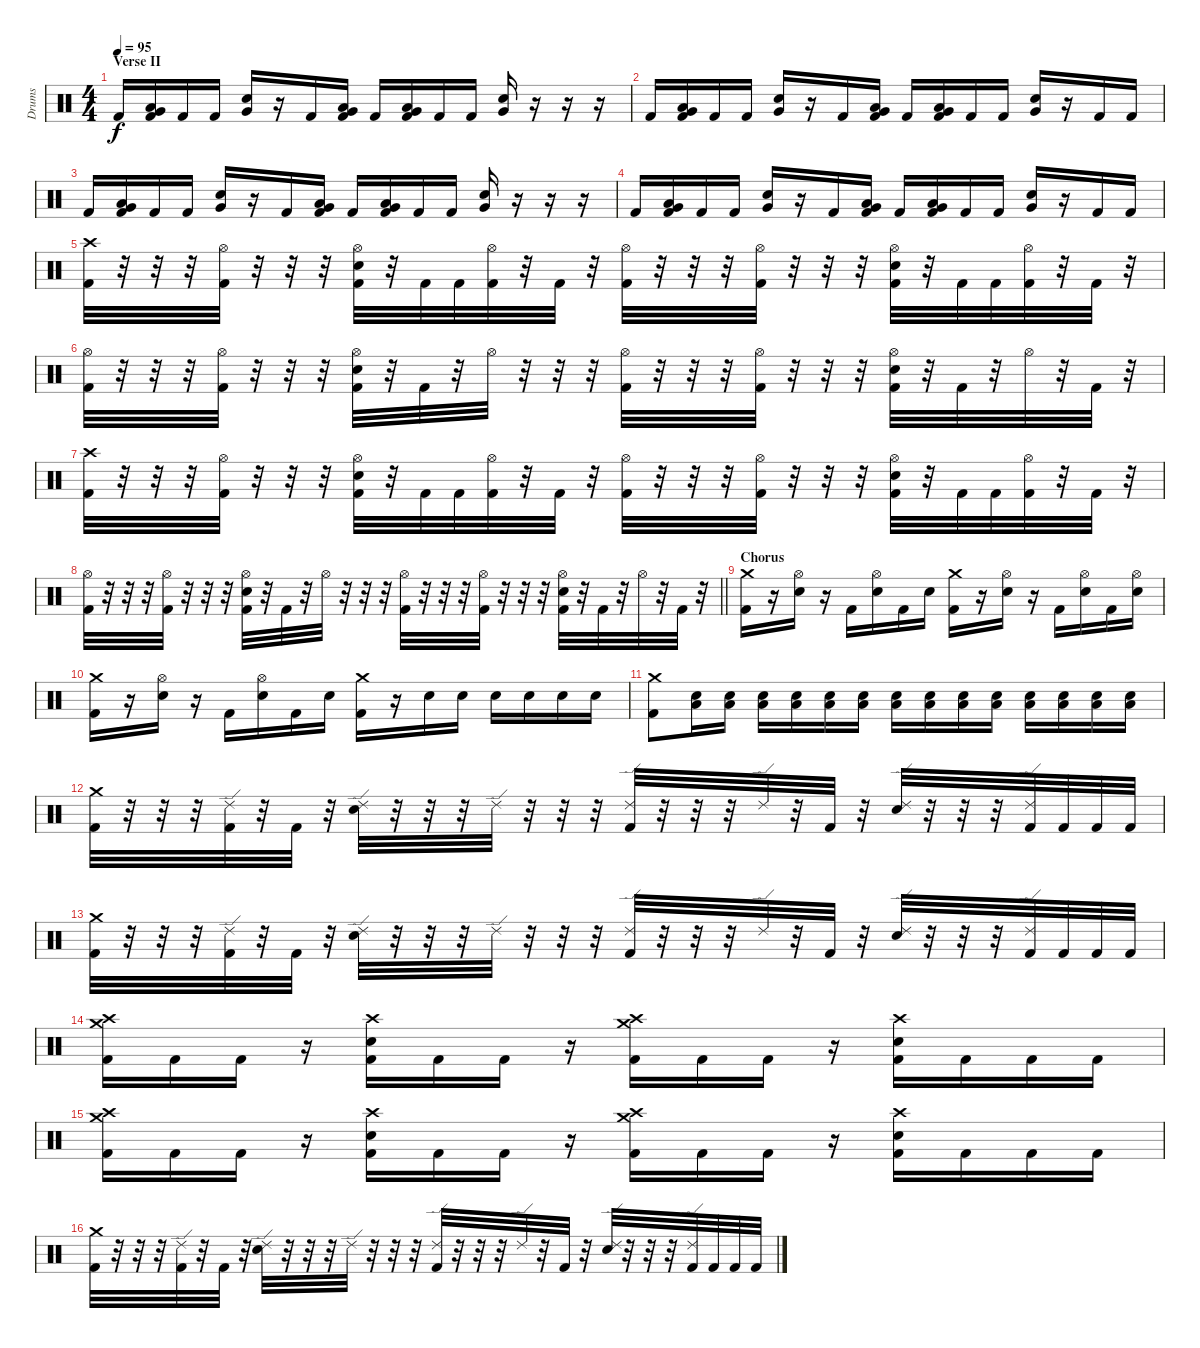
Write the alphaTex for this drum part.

\track ("Drums" "Drums") {instrument percussion}
\staff {score}
\articulation defaults
\ts (4 4)
\section ("" "Verse II")
\tempo 95
\clef neutral
\ks c "Kick (hit) 2".16{dy f}
("Low Tom (hit)" "Very Low Tom (hit)" "Kick (hit) 2").16 "Kick (hit) 2".16 "Kick (hit) 2".16 ("Electric Snare (hit)" "Very Low Tom (hit)").16 r.16 "Kick (hit) 2".16 ("Low Tom (hit)" "Very Low Tom (hit)" "Kick (hit) 2").16 "Kick (hit) 2".16 ("Very Low Tom (hit)" "Low Floor Tom (hit)" "Kick (hit) 2").16 "Kick (hit) 2".16 "Kick (hit) 2".16 ("Electric Snare (hit)" "Very Low Tom (hit)").16 r.16 r.16 r.16 |
"Kick (hit) 2".16 ("Low Tom (hit)" "Very Low Tom (hit)" "Kick (hit) 2").16 "Kick (hit) 2".16 "Kick (hit) 2".16 ("Electric Snare (hit)" "Very Low Tom (hit)").16 r.16 "Kick (hit) 2".16 ("Low Tom (hit)" "Very Low Tom (hit)" "Kick (hit) 2").16 "Kick (hit) 2".16 ("Very Low Tom (hit)" "Low Floor Tom (hit)" "Kick (hit) 2").16 "Kick (hit) 2".16 "Kick (hit) 2".16 ("Electric Snare (hit)" "Very Low Tom (hit)").16 r.16 "Kick (hit) 2".16 "Kick (hit) 2".16 |
"Kick (hit) 2".16 ("Low Tom (hit)" "Very Low Tom (hit)" "Kick (hit) 2").16 "Kick (hit) 2".16 "Kick (hit) 2".16 ("Electric Snare (hit)" "Very Low Tom (hit)").16 r.16 "Kick (hit) 2".16 ("Low Tom (hit)" "Very Low Tom (hit)" "Kick (hit) 2").16 "Kick (hit) 2".16 ("Very Low Tom (hit)" "Low Floor Tom (hit)" "Kick (hit) 2").16 "Kick (hit) 2".16 "Kick (hit) 2".16 ("Electric Snare (hit)" "Very Low Tom (hit)").16 r.16 r.16 r.16 |
"Kick (hit) 2".16 ("Low Tom (hit)" "Very Low Tom (hit)" "Kick (hit) 2").16 "Kick (hit) 2".16 "Kick (hit) 2".16 ("Electric Snare (hit)" "Very Low Tom (hit)").16 r.16 "Kick (hit) 2".16 ("Low Tom (hit)" "Very Low Tom (hit)" "Kick (hit) 2").16 "Kick (hit) 2".16 ("Very Low Tom (hit)" "Low Floor Tom (hit)" "Kick (hit) 2").16 "Kick (hit) 2".16 "Kick (hit) 2".16 ("Electric Snare (hit)" "Very Low Tom (hit)").16 r.16 "Kick (hit) 2".16 "Kick (hit) 2".16 |
("Crash high (hit)" "Kick (hit) 2").32 r.32 r.32 r.32 ("Hi-Hat (open)" "Kick (hit) 2").32 r.32 r.32 r.32 ("Hi-Hat (open)" "Electric Snare (hit)" "Kick (hit) 2").32 r.32 "Kick (hit) 2".32 "Kick (hit) 2".32 ("Hi-Hat (open)" "Kick (hit) 2").32 r.32 "Kick (hit) 2".32 r.32 ("Hi-Hat (open)" "Kick (hit) 2").32 r.32 r.32 r.32 ("Hi-Hat (open)" "Kick (hit) 2").32 r.32 r.32 r.32 ("Hi-Hat (open)" "Electric Snare (hit)" "Kick (hit) 2").32 r.32 "Kick (hit) 2".32 "Kick (hit) 2".32 ("Hi-Hat (open)" "Kick (hit) 2").32 r.32 "Kick (hit) 2".32 r.32 |
("Hi-Hat (open)" "Kick (hit) 2").32 r.32 r.32 r.32 ("Hi-Hat (open)" "Kick (hit) 2").32 r.32 r.32 r.32 ("Hi-Hat (open)" "Electric Snare (hit)" "Kick (hit) 2").32 r.32 "Kick (hit) 2".32 r.32 "Hi-Hat (open)".32 r.32 r.32 r.32 ("Hi-Hat (open)" "Kick (hit) 2").32 r.32 r.32 r.32 ("Hi-Hat (open)" "Kick (hit) 2").32 r.32 r.32 r.32 ("Hi-Hat (open)" "Electric Snare (hit)" "Kick (hit) 2").32 r.32 "Kick (hit) 2".32 r.32 "Hi-Hat (open)".32 r.32 "Kick (hit) 2".32 r.32 |
("Crash high (hit)" "Kick (hit) 2").32 r.32 r.32 r.32 ("Hi-Hat (open)" "Kick (hit) 2").32 r.32 r.32 r.32 ("Hi-Hat (open)" "Electric Snare (hit)" "Kick (hit) 2").32 r.32 "Kick (hit) 2".32 "Kick (hit) 2".32 ("Hi-Hat (open)" "Kick (hit) 2").32 r.32 "Kick (hit) 2".32 r.32 ("Hi-Hat (open)" "Kick (hit) 2").32 r.32 r.32 r.32 ("Hi-Hat (open)" "Kick (hit) 2").32 r.32 r.32 r.32 ("Hi-Hat (open)" "Electric Snare (hit)" "Kick (hit) 2").32 r.32 "Kick (hit) 2".32 "Kick (hit) 2".32 ("Hi-Hat (open)" "Kick (hit) 2").32 r.32 "Kick (hit) 2".32 r.32 |
\barLineRight lightlight
("Hi-Hat (open)" "Kick (hit) 2").32 r.32 r.32 r.32 ("Hi-Hat (open)" "Kick (hit) 2").32 r.32 r.32 r.32 ("Hi-Hat (open)" "Electric Snare (hit)" "Kick (hit) 2").32 r.32 "Kick (hit) 2".32 r.32 "Hi-Hat (open)".32 r.32 r.32 r.32 ("Hi-Hat (open)" "Kick (hit) 2").32 r.32 r.32 r.32 ("Hi-Hat (open)" "Kick (hit) 2").32 r.32 r.32 r.32 ("Hi-Hat (open)" "Electric Snare (hit)" "Kick (hit) 2").32 r.32 "Kick (hit) 2".32 r.32 "Hi-Hat (open)".32 r.32 "Kick (hit) 2".32 r.32 |
\section ("" "Chorus")
("Crash medium (hit)" "Kick (hit) 2").16 r.16 ("Hi-Hat (open)" "Electric Snare (hit)").16 r.16 "Kick (hit) 2".16 ("Hi-Hat (open)" "Electric Snare (hit)").16 "Kick (hit) 2".16 "Electric Snare (hit)".16 ("Crash medium (hit)" "Kick (hit) 2").16 r.16 ("Hi-Hat (open)" "Electric Snare (hit)").16 r.16 "Kick (hit) 2".16 ("Hi-Hat (open)" "Electric Snare (hit)").16 "Kick (hit) 2".16 ("Hi-Hat (open)" "Electric Snare (hit)").16 |
("Crash medium (hit)" "Kick (hit) 2").16 r.16 ("Hi-Hat (open)" "Electric Snare (hit)").16 r.16 "Kick (hit) 2".16 ("Hi-Hat (open)" "Electric Snare (hit)").16 "Kick (hit) 2".16 "Electric Snare (hit)".16 ("Crash medium (hit)" "Kick (hit) 2").16 r.16 "Electric Snare (hit)".16 "Electric Snare (hit)".16 "Electric Snare (hit)".16 "Electric Snare (hit)".16 "Electric Snare (hit)".16 "Electric Snare (hit)".16 |
("Crash medium (hit)" "Kick (hit) 2").8 ("Low Floor Tom (hit)" "Electric Snare (hit)").16 ("Low Floor Tom (hit)" "Electric Snare (hit)").16 ("Low Floor Tom (hit)" "Electric Snare (hit)").16 ("Low Floor Tom (hit)" "Electric Snare (hit)").16 ("Low Floor Tom (hit)" "Electric Snare (hit)").16 ("Low Floor Tom (hit)" "Electric Snare (hit)").16 ("Low Floor Tom (hit)" "Electric Snare (hit)").16 ("Low Floor Tom (hit)" "Electric Snare (hit)").16 ("Low Floor Tom (hit)" "Electric Snare (hit)").16 ("Low Floor Tom (hit)" "Electric Snare (hit)").16 ("Low Floor Tom (hit)" "Electric Snare (hit)").16 ("Low Floor Tom (hit)" "Electric Snare (hit)").16 ("Low Floor Tom (hit)" "Electric Snare (hit)").16 ("Low Floor Tom (hit)" "Electric Snare (hit)").16 |
("Crash medium (hit)" "Kick (hit) 2").32 r.32 r.32 r.32 ("Ride (edge) 2" "Kick (hit) 2").32 r.32 "Kick (hit) 2".32 r.32 ("Ride (edge) 2" "Electric Snare (hit)").32 r.32 r.32 r.32 "Ride (edge) 2".32 r.32 r.32 r.32 ("Ride (edge) 2" "Kick (hit) 2").32 r.32 r.32 r.32 "Ride (edge) 2".32 r.32 "Kick (hit) 2".32 r.32 ("Ride (edge) 2" "Electric Snare (hit)").32 r.32 r.32 r.32 ("Ride (edge) 2" "Kick (hit) 2").32 "Kick (hit) 2".32 "Kick (hit) 2".32 "Kick (hit) 2".32 |
("Crash medium (hit)" "Kick (hit) 2").32 r.32 r.32 r.32 ("Ride (edge) 2" "Kick (hit) 2").32 r.32 "Kick (hit) 2".32 r.32 ("Ride (edge) 2" "Electric Snare (hit)").32 r.32 r.32 r.32 "Ride (edge) 2".32 r.32 r.32 r.32 ("Ride (edge) 2" "Kick (hit) 2").32 r.32 r.32 r.32 "Ride (edge) 2".32 r.32 "Kick (hit) 2".32 r.32 ("Ride (edge) 2" "Electric Snare (hit)").32 r.32 r.32 r.32 ("Ride (edge) 2" "Kick (hit) 2").32 "Kick (hit) 2".32 "Kick (hit) 2".32 "Kick (hit) 2".32 |
("Crash medium (hit)" "Crash high (hit)" "Kick (hit) 2").16 "Kick (hit) 2".16 "Kick (hit) 2".16 r.16 ("Crash high (hit)" "Electric Snare (hit)" "Kick (hit) 2").16 "Kick (hit) 2".16 "Kick (hit) 2".16 r.16 ("Crash medium (hit)" "Crash high (hit)" "Kick (hit) 2").16 "Kick (hit) 2".16 "Kick (hit) 2".16 r.16 ("Crash high (hit)" "Electric Snare (hit)" "Kick (hit) 2").16 "Kick (hit) 2".16 "Kick (hit) 2".16 "Kick (hit) 2".16 |
("Crash medium (hit)" "Crash high (hit)" "Kick (hit) 2").16 "Kick (hit) 2".16 "Kick (hit) 2".16 r.16 ("Crash high (hit)" "Electric Snare (hit)" "Kick (hit) 2").16 "Kick (hit) 2".16 "Kick (hit) 2".16 r.16 ("Crash medium (hit)" "Crash high (hit)" "Kick (hit) 2").16 "Kick (hit) 2".16 "Kick (hit) 2".16 r.16 ("Crash high (hit)" "Electric Snare (hit)" "Kick (hit) 2").16 "Kick (hit) 2".16 "Kick (hit) 2".16 "Kick (hit) 2".16 |
("Crash medium (hit)" "Kick (hit) 2").32 r.32 r.32 r.32 ("Ride (edge) 2" "Kick (hit) 2").32 r.32 "Kick (hit) 2".32 r.32 ("Ride (edge) 2" "Electric Snare (hit)").32 r.32 r.32 r.32 "Ride (edge) 2".32 r.32 r.32 r.32 ("Ride (edge) 2" "Kick (hit) 2").32 r.32 r.32 r.32 "Ride (edge) 2".32 r.32 "Kick (hit) 2".32 r.32 ("Ride (edge) 2" "Electric Snare (hit)").32 r.32 r.32 r.32 ("Ride (edge) 2" "Kick (hit) 2").32 "Kick (hit) 2".32 "Kick (hit) 2".32 "Kick (hit) 2".32
